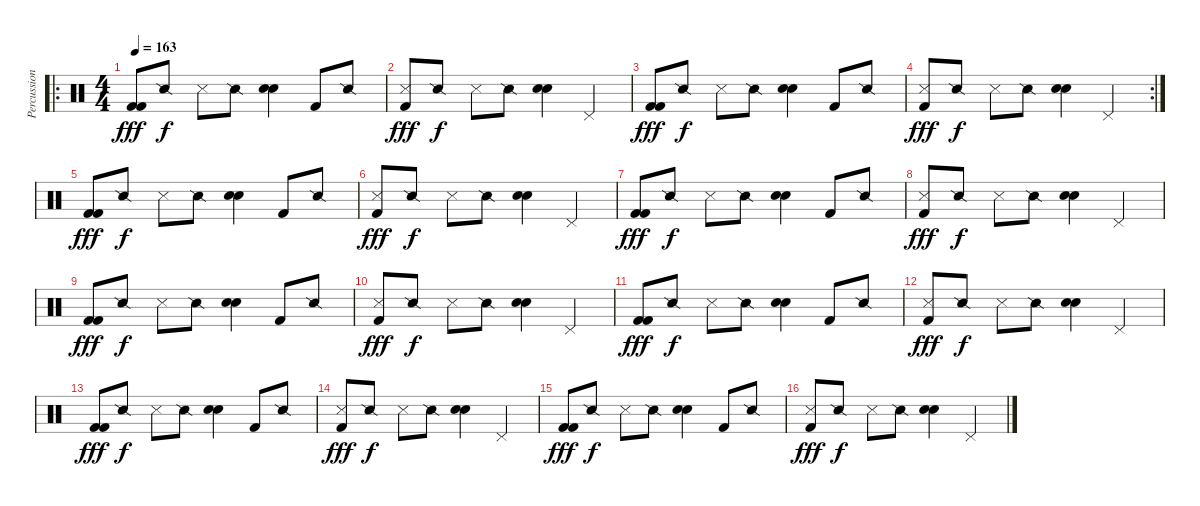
\track ("Percussion" "Percussion") {instrument percussion}
\staff {score}
\articulation defaults
\ro
\ts (4 4)
\tempo 163
\clef neutral
\ks c
("Kick (hit) 2" "Kick (hit) 2").8{dy fff} "Snare (side stick) 2".8{dy f} "Metronome (hit)".8 "Snare (side stick) 2".8 ("Snare (hit) 2" "Hand Clap (hit)").4 "Kick (hit) 2".8 "Snare (side stick) 2".8 |
("Metronome (hit)" "Kick (hit) 2").8{dy fff} "Snare (side stick) 2".8{dy f} "Metronome (hit)".8 "Snare (side stick) 2".8 ("Snare (hit) 2" "Hand Clap (hit)").4 "Pedal Hi-Hat (hit)".4 |
("Kick (hit) 2" "Kick (hit) 2").8{dy fff} "Snare (side stick) 2".8{dy f} "Metronome (hit)".8 "Snare (side stick) 2".8 ("Snare (hit) 2" "Hand Clap (hit)").4 "Kick (hit) 2".8 "Snare (side stick) 2".8 |
\rc 2
("Metronome (hit)" "Kick (hit) 2").8{dy fff} "Snare (side stick) 2".8{dy f} "Metronome (hit)".8 "Snare (side stick) 2".8 ("Snare (hit) 2" "Hand Clap (hit)").4 "Pedal Hi-Hat (hit)".4 |
("Kick (hit) 2" "Kick (hit) 2").8{dy fff} "Snare (side stick) 2".8{dy f} "Metronome (hit)".8 "Snare (side stick) 2".8 ("Snare (hit) 2" "Hand Clap (hit)").4 "Kick (hit) 2".8 "Snare (side stick) 2".8 |
("Metronome (hit)" "Kick (hit) 2").8{dy fff} "Snare (side stick) 2".8{dy f} "Metronome (hit)".8 "Snare (side stick) 2".8 ("Snare (hit) 2" "Hand Clap (hit)").4 "Pedal Hi-Hat (hit)".4 |
("Kick (hit) 2" "Kick (hit) 2").8{dy fff} "Snare (side stick) 2".8{dy f} "Metronome (hit)".8 "Snare (side stick) 2".8 ("Snare (hit) 2" "Hand Clap (hit)").4 "Kick (hit) 2".8 "Snare (side stick) 2".8 |
("Metronome (hit)" "Kick (hit) 2").8{dy fff} "Snare (side stick) 2".8{dy f} "Metronome (hit)".8 "Snare (side stick) 2".8 ("Snare (hit) 2" "Hand Clap (hit)").4 "Pedal Hi-Hat (hit)".4 |
("Kick (hit) 2" "Kick (hit) 2").8{dy fff} "Snare (side stick) 2".8{dy f} "Metronome (hit)".8 "Snare (side stick) 2".8 ("Snare (hit) 2" "Hand Clap (hit)").4 "Kick (hit) 2".8 "Snare (side stick) 2".8 |
("Metronome (hit)" "Kick (hit) 2").8{dy fff} "Snare (side stick) 2".8{dy f} "Metronome (hit)".8 "Snare (side stick) 2".8 ("Snare (hit) 2" "Hand Clap (hit)").4 "Pedal Hi-Hat (hit)".4 |
("Kick (hit) 2" "Kick (hit) 2").8{dy fff} "Snare (side stick) 2".8{dy f} "Metronome (hit)".8 "Snare (side stick) 2".8 ("Snare (hit) 2" "Hand Clap (hit)").4 "Kick (hit) 2".8 "Snare (side stick) 2".8 |
("Metronome (hit)" "Kick (hit) 2").8{dy fff} "Snare (side stick) 2".8{dy f} "Metronome (hit)".8 "Snare (side stick) 2".8 ("Snare (hit) 2" "Hand Clap (hit)").4 "Pedal Hi-Hat (hit)".4 |
("Kick (hit) 2" "Kick (hit) 2").8{dy fff} "Snare (side stick) 2".8{dy f} "Metronome (hit)".8 "Snare (side stick) 2".8 ("Snare (hit) 2" "Hand Clap (hit)").4 "Kick (hit) 2".8 "Snare (side stick) 2".8 |
("Metronome (hit)" "Kick (hit) 2").8{dy fff} "Snare (side stick) 2".8{dy f} "Metronome (hit)".8 "Snare (side stick) 2".8 ("Snare (hit) 2" "Hand Clap (hit)").4 "Pedal Hi-Hat (hit)".4 |
("Kick (hit) 2" "Kick (hit) 2").8{dy fff} "Snare (side stick) 2".8{dy f} "Metronome (hit)".8 "Snare (side stick) 2".8 ("Snare (hit) 2" "Hand Clap (hit)").4 "Kick (hit) 2".8 "Snare (side stick) 2".8 |
("Metronome (hit)" "Kick (hit) 2").8{dy fff} "Snare (side stick) 2".8{dy f} "Metronome (hit)".8 "Snare (side stick) 2".8 ("Snare (hit) 2" "Hand Clap (hit)").4 "Pedal Hi-Hat (hit)".4
